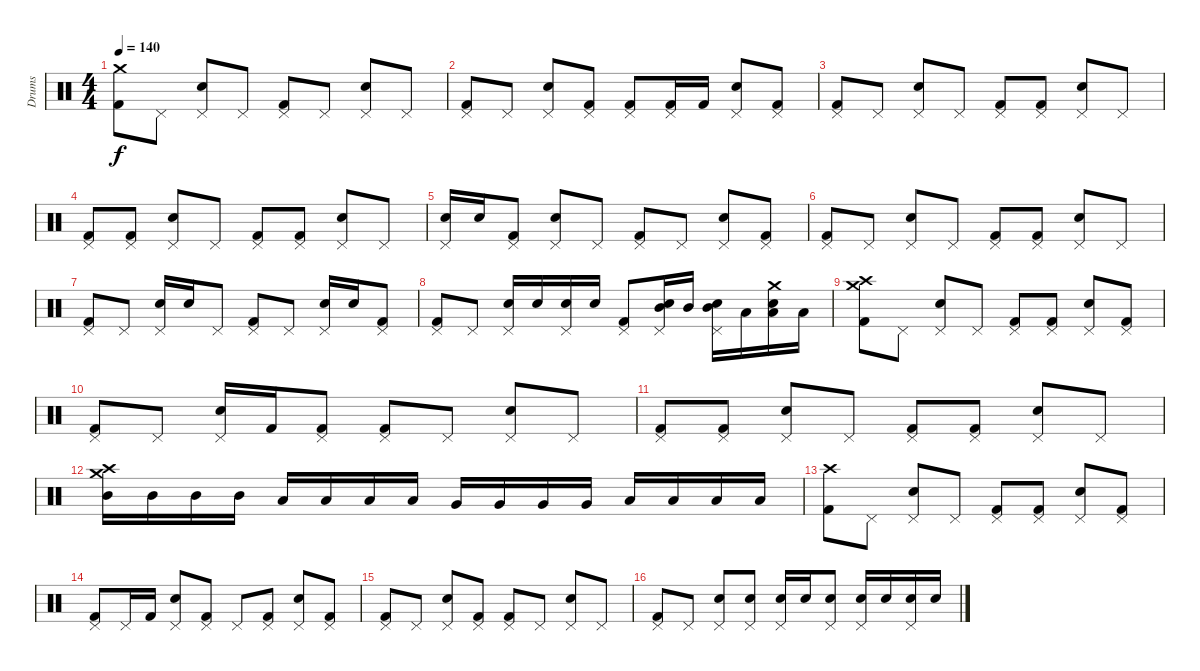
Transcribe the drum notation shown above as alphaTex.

\track ("Drums" "Drums") {instrument percussion}
\staff {score}
\articulation defaults
\ts (4 4)
\tempo 140
\clef neutral
\ks c
("Crash medium (hit)" "Kick (hit) 2").8{dy f} "Pedal Hi-Hat (hit)".8 ("Pedal Hi-Hat (hit)" "Electric Snare (hit)").8 "Pedal Hi-Hat (hit)".8 ("Pedal Hi-Hat (hit)" "Kick (hit) 2").8 "Pedal Hi-Hat (hit)".8 ("Pedal Hi-Hat (hit)" "Electric Snare (hit)").8 "Pedal Hi-Hat (hit)".8 |
("Pedal Hi-Hat (hit)" "Kick (hit) 2").8 "Pedal Hi-Hat (hit)".8 ("Pedal Hi-Hat (hit)" "Electric Snare (hit)").8 ("Pedal Hi-Hat (hit)" "Kick (hit) 2").8 ("Pedal Hi-Hat (hit)" "Kick (hit) 2").8 ("Pedal Hi-Hat (hit)" "Kick (hit) 2").16 "Kick (hit) 2".16 ("Pedal Hi-Hat (hit)" "Electric Snare (hit)").8 ("Pedal Hi-Hat (hit)" "Kick (hit) 2").8 |
("Pedal Hi-Hat (hit)" "Kick (hit) 2").8 "Pedal Hi-Hat (hit)".8 ("Pedal Hi-Hat (hit)" "Electric Snare (hit)").8 "Pedal Hi-Hat (hit)".8 ("Pedal Hi-Hat (hit)" "Kick (hit) 2").8 ("Pedal Hi-Hat (hit)" "Kick (hit) 2").8 ("Pedal Hi-Hat (hit)" "Electric Snare (hit)").8 "Pedal Hi-Hat (hit)".8 |
("Pedal Hi-Hat (hit)" "Kick (hit) 2").8 ("Pedal Hi-Hat (hit)" "Kick (hit) 2").8 ("Pedal Hi-Hat (hit)" "Electric Snare (hit)").8 "Pedal Hi-Hat (hit)".8 ("Pedal Hi-Hat (hit)" "Kick (hit) 2").8 ("Pedal Hi-Hat (hit)" "Kick (hit) 2").8 ("Pedal Hi-Hat (hit)" "Electric Snare (hit)").8 "Pedal Hi-Hat (hit)".8 |
("Pedal Hi-Hat (hit)" "Electric Snare (hit)").16 "Electric Snare (hit)".16 ("Pedal Hi-Hat (hit)" "Kick (hit) 2").8 ("Pedal Hi-Hat (hit)" "Electric Snare (hit)").8 "Pedal Hi-Hat (hit)".8 ("Pedal Hi-Hat (hit)" "Kick (hit) 2").8 "Pedal Hi-Hat (hit)".8 ("Pedal Hi-Hat (hit)" "Electric Snare (hit)").8 ("Pedal Hi-Hat (hit)" "Kick (hit) 2").8 |
("Pedal Hi-Hat (hit)" "Kick (hit) 2").8 "Pedal Hi-Hat (hit)".8 ("Pedal Hi-Hat (hit)" "Electric Snare (hit)").8 "Pedal Hi-Hat (hit)".8 ("Pedal Hi-Hat (hit)" "Kick (hit) 2").8 ("Pedal Hi-Hat (hit)" "Kick (hit) 2").8 ("Pedal Hi-Hat (hit)" "Electric Snare (hit)").8 "Pedal Hi-Hat (hit)".8 |
("Pedal Hi-Hat (hit)" "Kick (hit) 2").8 "Pedal Hi-Hat (hit)".8 ("Pedal Hi-Hat (hit)" "Electric Snare (hit)").16 "Electric Snare (hit)".16 "Pedal Hi-Hat (hit)".8 ("Pedal Hi-Hat (hit)" "Kick (hit) 2").8 "Pedal Hi-Hat (hit)".8 ("Pedal Hi-Hat (hit)" "Electric Snare (hit)").16 "Electric Snare (hit)".16 ("Pedal Hi-Hat (hit)" "Kick (hit) 2").8 |
("Pedal Hi-Hat (hit)" "Kick (hit) 2").8 "Pedal Hi-Hat (hit)".8 ("Pedal Hi-Hat (hit)" "Electric Snare (hit)").16 "Electric Snare (hit)".16 ("Pedal Hi-Hat (hit)" "Electric Snare (hit)").16 "Electric Snare (hit)".16 ("Pedal Hi-Hat (hit)" "Kick (hit) 2").8 ("Pedal Hi-Hat (hit)" "Electric Snare (hit)" "Mid Tom (hit)").16 "Mid Tom (hit)".16 ("Pedal Hi-Hat (hit)" "Electric Snare (hit)" "Mid Tom (hit)").16 "Low Tom (hit)".16 ("Crash medium (hit)" "Electric Snare (hit)" "Low Tom (hit)").16 "Low Tom (hit)".16 |
("Crash medium (hit)" "Crash high (hit)" "Kick (hit) 2").8 "Pedal Hi-Hat (hit)".8 ("Pedal Hi-Hat (hit)" "Electric Snare (hit)").8 "Pedal Hi-Hat (hit)".8 ("Pedal Hi-Hat (hit)" "Kick (hit) 2").8 ("Pedal Hi-Hat (hit)" "Kick (hit) 2").8 ("Pedal Hi-Hat (hit)" "Electric Snare (hit)").8 ("Pedal Hi-Hat (hit)" "Kick (hit) 2").8 |
("Pedal Hi-Hat (hit)" "Kick (hit) 2").8 "Pedal Hi-Hat (hit)".8 ("Pedal Hi-Hat (hit)" "Electric Snare (hit)").16 "Kick (hit) 2".16 ("Pedal Hi-Hat (hit)" "Kick (hit) 2").8 ("Pedal Hi-Hat (hit)" "Kick (hit) 2").8 "Pedal Hi-Hat (hit)".8 ("Pedal Hi-Hat (hit)" "Electric Snare (hit)").8 "Pedal Hi-Hat (hit)".8 |
("Pedal Hi-Hat (hit)" "Kick (hit) 2").8 ("Pedal Hi-Hat (hit)" "Kick (hit) 2").8 ("Pedal Hi-Hat (hit)" "Electric Snare (hit)").8 "Pedal Hi-Hat (hit)".8 ("Pedal Hi-Hat (hit)" "Kick (hit) 2").8 ("Pedal Hi-Hat (hit)" "Kick (hit) 2").8 ("Pedal Hi-Hat (hit)" "Electric Snare (hit)").8 "Pedal Hi-Hat (hit)".8 |
("Crash high (hit)" "Crash medium (hit)" "Mid Tom (hit)").16 "Mid Tom (hit)".16 "Mid Tom (hit)".16 "Mid Tom (hit)".16 "Low Tom (hit)".16 "Low Tom (hit)".16 "Low Tom (hit)".16 "Low Tom (hit)".16 "Very Low Tom (hit)".16 "Very Low Tom (hit)".16 "Very Low Tom (hit)".16 "Very Low Tom (hit)".16 "Low Floor Tom (hit)".16 "Low Floor Tom (hit)".16 "Low Floor Tom (hit)".16 "Low Floor Tom (hit)".16 |
("Crash high (hit)" "Kick (hit) 2").8 "Pedal Hi-Hat (hit)".8 ("Pedal Hi-Hat (hit)" "Electric Snare (hit)").8 "Pedal Hi-Hat (hit)".8 ("Pedal Hi-Hat (hit)" "Kick (hit) 2").8 ("Pedal Hi-Hat (hit)" "Kick (hit) 2").8 ("Pedal Hi-Hat (hit)" "Electric Snare (hit)").8 ("Pedal Hi-Hat (hit)" "Kick (hit) 2").8 |
("Pedal Hi-Hat (hit)" "Kick (hit) 2").8 "Pedal Hi-Hat (hit)".16 "Kick (hit) 2".16 ("Pedal Hi-Hat (hit)" "Electric Snare (hit)").8 ("Pedal Hi-Hat (hit)" "Kick (hit) 2").8 "Pedal Hi-Hat (hit)".8 ("Pedal Hi-Hat (hit)" "Kick (hit) 2").8 ("Pedal Hi-Hat (hit)" "Electric Snare (hit)").8 ("Pedal Hi-Hat (hit)" "Kick (hit) 2").8 |
("Pedal Hi-Hat (hit)" "Kick (hit) 2").8 "Pedal Hi-Hat (hit)".8 ("Pedal Hi-Hat (hit)" "Electric Snare (hit)").8 ("Pedal Hi-Hat (hit)" "Kick (hit) 2").8 ("Pedal Hi-Hat (hit)" "Kick (hit) 2").8 "Pedal Hi-Hat (hit)".8 ("Pedal Hi-Hat (hit)" "Electric Snare (hit)").8 "Pedal Hi-Hat (hit)".8 |
("Pedal Hi-Hat (hit)" "Kick (hit) 2").8 "Pedal Hi-Hat (hit)".8 ("Pedal Hi-Hat (hit)" "Electric Snare (hit)").8 ("Pedal Hi-Hat (hit)" "Electric Snare (hit)").8 ("Pedal Hi-Hat (hit)" "Electric Snare (hit)").16 "Electric Snare (hit)".16 ("Pedal Hi-Hat (hit)" "Electric Snare (hit)").8 ("Pedal Hi-Hat (hit)" "Electric Snare (hit)").16 "Electric Snare (hit)".16 ("Pedal Hi-Hat (hit)" "Electric Snare (hit)").16 "Electric Snare (hit)".16
